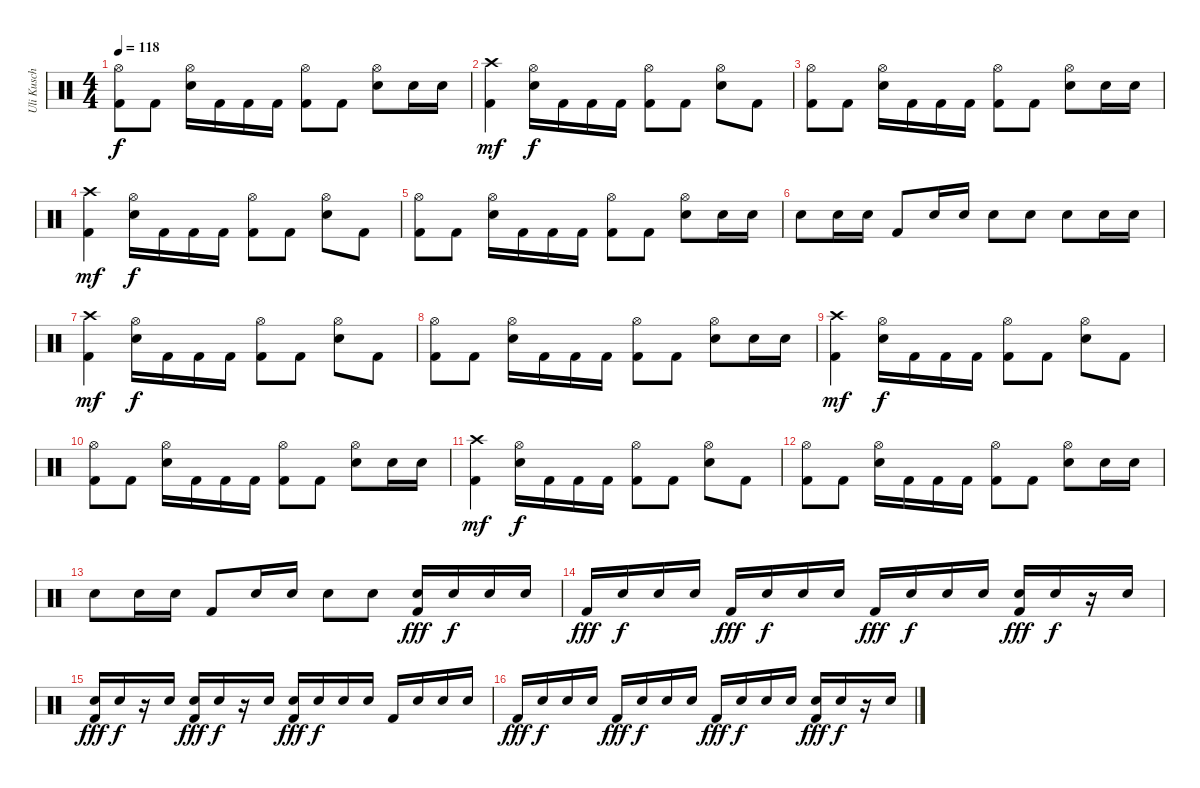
\track ("Uli Kusch" "Uli Kusch") {instrument percussion}
\staff {score}
\articulation defaults
\ts (4 4)
\tempo 118
\clef neutral
\ks c
("Kick (hit) 2" "Hi-Hat (open)").8{dy f} "Kick (hit) 2".8 ("Electric Snare (hit)" "Hi-Hat (open)").16 "Kick (hit) 2".16 "Kick (hit) 2".16 "Kick (hit) 2".16 ("Kick (hit) 2" "Hi-Hat (open)").8 "Kick (hit) 2".8 ("Electric Snare (hit)" "Hi-Hat (open)").8 "Electric Snare (hit)".16 "Electric Snare (hit)".16 |
("Kick (hit) 2" "Crash high (hit)").4{dy mf} ("Electric Snare (hit)" "Hi-Hat (open)").16{dy f} "Kick (hit) 2".16 "Kick (hit) 2".16 "Kick (hit) 2".16 ("Kick (hit) 2" "Hi-Hat (open)").8 "Kick (hit) 2".8 ("Electric Snare (hit)" "Hi-Hat (open)").8 "Kick (hit) 2".8 |
("Kick (hit) 2" "Hi-Hat (open)").8 "Kick (hit) 2".8 ("Electric Snare (hit)" "Hi-Hat (open)").16 "Kick (hit) 2".16 "Kick (hit) 2".16 "Kick (hit) 2".16 ("Kick (hit) 2" "Hi-Hat (open)").8 "Kick (hit) 2".8 ("Electric Snare (hit)" "Hi-Hat (open)").8 "Electric Snare (hit)".16 "Electric Snare (hit)".16 |
("Kick (hit) 2" "Crash high (hit)").4{dy mf} ("Electric Snare (hit)" "Hi-Hat (open)").16{dy f} "Kick (hit) 2".16 "Kick (hit) 2".16 "Kick (hit) 2".16 ("Kick (hit) 2" "Hi-Hat (open)").8 "Kick (hit) 2".8 ("Electric Snare (hit)" "Hi-Hat (open)").8 "Kick (hit) 2".8 |
("Kick (hit) 2" "Hi-Hat (open)").8 "Kick (hit) 2".8 ("Electric Snare (hit)" "Hi-Hat (open)").16 "Kick (hit) 2".16 "Kick (hit) 2".16 "Kick (hit) 2".16 ("Kick (hit) 2" "Hi-Hat (open)").8 "Kick (hit) 2".8 ("Electric Snare (hit)" "Hi-Hat (open)").8 "Electric Snare (hit)".16 "Electric Snare (hit)".16 |
"Electric Snare (hit)".8 "Electric Snare (hit)".16 "Electric Snare (hit)".16 "Kick (hit) 2".8 "Electric Snare (hit)".16 "Electric Snare (hit)".16 "Electric Snare (hit)".8 "Electric Snare (hit)".8 "Electric Snare (hit)".8 "Electric Snare (hit)".16 "Electric Snare (hit)".16 |
("Kick (hit) 2" "Crash high (hit)").4{dy mf} ("Electric Snare (hit)" "Hi-Hat (open)").16{dy f} "Kick (hit) 2".16 "Kick (hit) 2".16 "Kick (hit) 2".16 ("Kick (hit) 2" "Hi-Hat (open)").8 "Kick (hit) 2".8 ("Electric Snare (hit)" "Hi-Hat (open)").8 "Kick (hit) 2".8 |
("Kick (hit) 2" "Hi-Hat (open)").8 "Kick (hit) 2".8 ("Electric Snare (hit)" "Hi-Hat (open)").16 "Kick (hit) 2".16 "Kick (hit) 2".16 "Kick (hit) 2".16 ("Kick (hit) 2" "Hi-Hat (open)").8 "Kick (hit) 2".8 ("Electric Snare (hit)" "Hi-Hat (open)").8 "Electric Snare (hit)".16 "Electric Snare (hit)".16 |
("Kick (hit) 2" "Crash high (hit)").4{dy mf} ("Electric Snare (hit)" "Hi-Hat (open)").16{dy f} "Kick (hit) 2".16 "Kick (hit) 2".16 "Kick (hit) 2".16 ("Kick (hit) 2" "Hi-Hat (open)").8 "Kick (hit) 2".8 ("Electric Snare (hit)" "Hi-Hat (open)").8 "Kick (hit) 2".8 |
("Kick (hit) 2" "Hi-Hat (open)").8 "Kick (hit) 2".8 ("Electric Snare (hit)" "Hi-Hat (open)").16 "Kick (hit) 2".16 "Kick (hit) 2".16 "Kick (hit) 2".16 ("Kick (hit) 2" "Hi-Hat (open)").8 "Kick (hit) 2".8 ("Electric Snare (hit)" "Hi-Hat (open)").8 "Electric Snare (hit)".16 "Electric Snare (hit)".16 |
("Kick (hit) 2" "Crash high (hit)").4{dy mf} ("Electric Snare (hit)" "Hi-Hat (open)").16{dy f} "Kick (hit) 2".16 "Kick (hit) 2".16 "Kick (hit) 2".16 ("Kick (hit) 2" "Hi-Hat (open)").8 "Kick (hit) 2".8 ("Electric Snare (hit)" "Hi-Hat (open)").8 "Kick (hit) 2".8 |
("Kick (hit) 2" "Hi-Hat (open)").8 "Kick (hit) 2".8 ("Electric Snare (hit)" "Hi-Hat (open)").16 "Kick (hit) 2".16 "Kick (hit) 2".16 "Kick (hit) 2".16 ("Kick (hit) 2" "Hi-Hat (open)").8 "Kick (hit) 2".8 ("Electric Snare (hit)" "Hi-Hat (open)").8 "Electric Snare (hit)".16 "Electric Snare (hit)".16 |
"Electric Snare (hit)".8 "Electric Snare (hit)".16 "Electric Snare (hit)".16 "Kick (hit) 2".8 "Electric Snare (hit)".16 "Electric Snare (hit)".16 "Electric Snare (hit)".8 "Electric Snare (hit)".8 ("Electric Snare (hit)" "Kick (hit) 2").16{dy fff} "Electric Snare (hit)".16{dy f} "Electric Snare (hit)".16 "Electric Snare (hit)".16 |
"Kick (hit) 2".16{dy fff} "Electric Snare (hit)".16{dy f} "Electric Snare (hit)".16 "Electric Snare (hit)".16 "Kick (hit) 2".16{dy fff} "Electric Snare (hit)".16{dy f} "Electric Snare (hit)".16 "Electric Snare (hit)".16 "Kick (hit) 2".16{dy fff} "Electric Snare (hit)".16{dy f} "Electric Snare (hit)".16 "Electric Snare (hit)".16 ("Electric Snare (hit)" "Kick (hit) 2").16{dy fff} "Electric Snare (hit)".16{dy f} r.16 "Electric Snare (hit)".16 |
("Electric Snare (hit)" "Kick (hit) 2").16{dy fff} "Electric Snare (hit)".16{dy f} r.16 "Electric Snare (hit)".16 ("Electric Snare (hit)" "Kick (hit) 2").16{dy fff} "Electric Snare (hit)".16{dy f} r.16 "Electric Snare (hit)".16 ("Electric Snare (hit)" "Kick (hit) 2").16{dy fff} "Electric Snare (hit)".16{dy f} "Electric Snare (hit)".16 "Electric Snare (hit)".16 "Kick (hit) 2".16 "Electric Snare (hit)".16 "Electric Snare (hit)".16 "Electric Snare (hit)".16 |
"Kick (hit) 2".16{dy fff} "Electric Snare (hit)".16{dy f} "Electric Snare (hit)".16 "Electric Snare (hit)".16 "Kick (hit) 2".16{dy fff} "Electric Snare (hit)".16{dy f} "Electric Snare (hit)".16 "Electric Snare (hit)".16 "Kick (hit) 2".16{dy fff} "Electric Snare (hit)".16{dy f} "Electric Snare (hit)".16 "Electric Snare (hit)".16 ("Electric Snare (hit)" "Kick (hit) 2").16{dy fff} "Electric Snare (hit)".16{dy f} r.16 "Electric Snare (hit)".16
